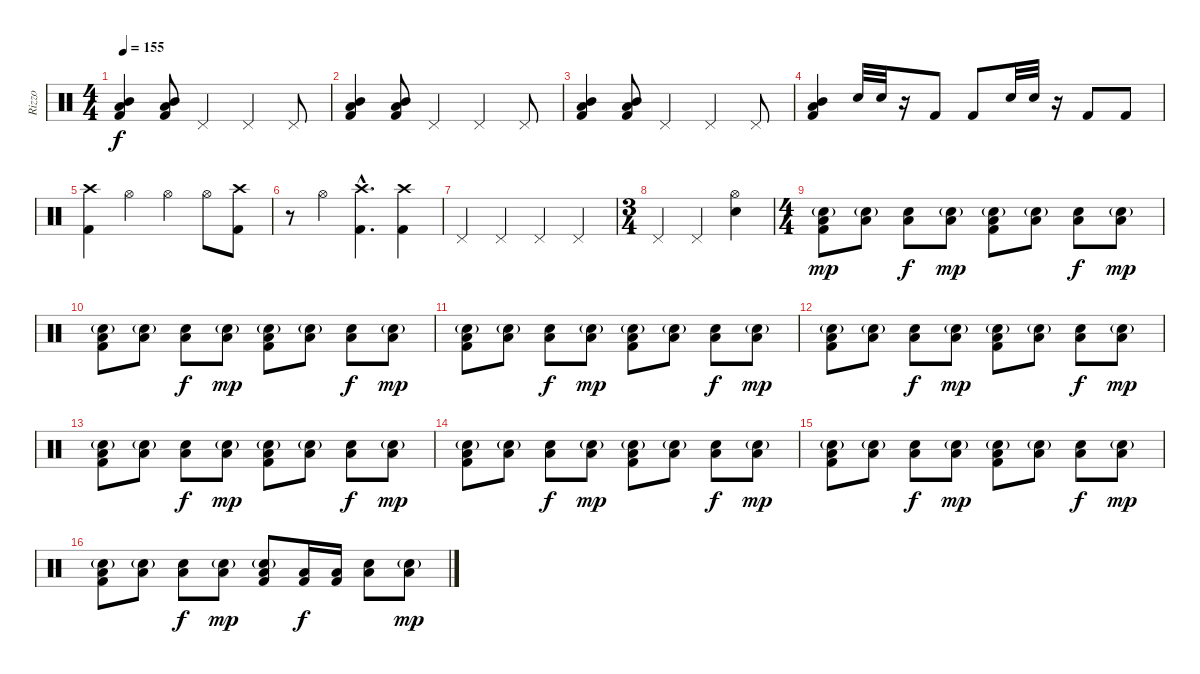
\track ("Rizzo" "Rizzo") {instrument percussion}
\staff {score}
\articulation defaults
\ts (4 4)
\tempo 155
\clef neutral
\ks c
("Mid Tom (hit)" "Low Tom (hit)" "Kick (hit) 2").4{dy f} ("Mid Tom (hit)" "Low Tom (hit)" "Kick (hit) 2").8 "Pedal Hi-Hat (hit)".4 "Pedal Hi-Hat (hit)".4 "Pedal Hi-Hat (hit)".8 |
("Mid Tom (hit)" "Low Tom (hit)" "Kick (hit) 2").4 ("Mid Tom (hit)" "Low Tom (hit)" "Kick (hit) 2").8 "Pedal Hi-Hat (hit)".4 "Pedal Hi-Hat (hit)".4 "Pedal Hi-Hat (hit)".8 |
("Mid Tom (hit)" "Low Tom (hit)" "Kick (hit) 2").4 ("Mid Tom (hit)" "Low Tom (hit)" "Kick (hit) 2").8 "Pedal Hi-Hat (hit)".4 "Pedal Hi-Hat (hit)".4 "Pedal Hi-Hat (hit)".8 |
("Mid Tom (hit)" "Low Tom (hit)" "Kick (hit) 2").4 "Electric Snare (hit)".32 "Electric Snare (hit)".32 r.16 "Kick (hit) 2".8 "Kick (hit) 2".8 "Electric Snare (hit)".32 "Electric Snare (hit)".32 r.16 "Kick (hit) 2".8 "Kick (hit) 2".8 |
("Crash high (hit)" "Kick (hit) 2").4 "Hi-Hat (open)".4 "Hi-Hat (open)".4 "Hi-Hat (open)".8 ("Crash high (hit)" "Kick (hit) 2").8 |
r.8 "Hi-Hat (open)".4 ("Crash high (hit)"{hac} "Kick (hit) 2"{hac}).4{d} ("Crash high (hit)" "Kick (hit) 2").4 |
"Pedal Hi-Hat (hit)".4 "Pedal Hi-Hat (hit)".4 "Pedal Hi-Hat (hit)".4 "Pedal Hi-Hat (hit)".4 |
\ts (3 4)
"Pedal Hi-Hat (hit)".4 "Pedal Hi-Hat (hit)".4 ("Hi-Hat (open)" "Electric Snare (hit)").4 |
\ts (4 4)
("Low Tom (hit)" "Electric Snare (hit)"{g} "Kick (hit) 2").8{dy mp} ("Low Tom (hit)" "Electric Snare (hit)"{g}).8 ("Low Tom (hit)" "Electric Snare (hit)").8{dy f} ("Low Tom (hit)" "Electric Snare (hit)"{g}).8{dy mp} ("Low Tom (hit)" "Electric Snare (hit)"{g} "Kick (hit) 2").8 ("Low Tom (hit)" "Electric Snare (hit)"{g}).8 ("Low Tom (hit)" "Electric Snare (hit)").8{dy f} ("Low Tom (hit)" "Electric Snare (hit)"{g}).8{dy mp} |
("Low Tom (hit)" "Electric Snare (hit)"{g} "Kick (hit) 2").8 ("Low Tom (hit)" "Electric Snare (hit)"{g}).8 ("Low Tom (hit)" "Electric Snare (hit)").8{dy f} ("Low Tom (hit)" "Electric Snare (hit)"{g}).8{dy mp} ("Low Tom (hit)" "Electric Snare (hit)"{g} "Kick (hit) 2").8 ("Low Tom (hit)" "Electric Snare (hit)"{g}).8 ("Low Tom (hit)" "Electric Snare (hit)").8{dy f} ("Low Tom (hit)" "Electric Snare (hit)"{g}).8{dy mp} |
("Low Tom (hit)" "Electric Snare (hit)"{g} "Kick (hit) 2").8 ("Low Tom (hit)" "Electric Snare (hit)"{g}).8 ("Low Tom (hit)" "Electric Snare (hit)").8{dy f} ("Low Tom (hit)" "Electric Snare (hit)"{g}).8{dy mp} ("Low Tom (hit)" "Electric Snare (hit)"{g} "Kick (hit) 2").8 ("Low Tom (hit)" "Electric Snare (hit)"{g}).8 ("Low Tom (hit)" "Electric Snare (hit)").8{dy f} ("Low Tom (hit)" "Electric Snare (hit)"{g}).8{dy mp} |
("Low Tom (hit)" "Electric Snare (hit)"{g} "Kick (hit) 2").8 ("Low Tom (hit)" "Electric Snare (hit)"{g}).8 ("Low Tom (hit)" "Electric Snare (hit)").8{dy f} ("Low Tom (hit)" "Electric Snare (hit)"{g}).8{dy mp} ("Low Tom (hit)" "Electric Snare (hit)"{g} "Kick (hit) 2").8 ("Low Tom (hit)" "Electric Snare (hit)"{g}).8 ("Low Tom (hit)" "Electric Snare (hit)").8{dy f} ("Low Tom (hit)" "Electric Snare (hit)"{g}).8{dy mp} |
("Low Tom (hit)" "Electric Snare (hit)"{g} "Kick (hit) 2").8 ("Low Tom (hit)" "Electric Snare (hit)"{g}).8 ("Low Tom (hit)" "Electric Snare (hit)").8{dy f} ("Low Tom (hit)" "Electric Snare (hit)"{g}).8{dy mp} ("Low Tom (hit)" "Electric Snare (hit)"{g} "Kick (hit) 2").8 ("Low Tom (hit)" "Electric Snare (hit)"{g}).8 ("Low Tom (hit)" "Electric Snare (hit)").8{dy f} ("Low Tom (hit)" "Electric Snare (hit)"{g}).8{dy mp} |
("Low Tom (hit)" "Electric Snare (hit)"{g} "Kick (hit) 2").8 ("Low Tom (hit)" "Electric Snare (hit)"{g}).8 ("Low Tom (hit)" "Electric Snare (hit)").8{dy f} ("Low Tom (hit)" "Electric Snare (hit)"{g}).8{dy mp} ("Low Tom (hit)" "Electric Snare (hit)"{g} "Kick (hit) 2").8 ("Low Tom (hit)" "Electric Snare (hit)"{g}).8 ("Low Tom (hit)" "Electric Snare (hit)").8{dy f} ("Low Tom (hit)" "Electric Snare (hit)"{g}).8{dy mp} |
("Low Tom (hit)" "Electric Snare (hit)"{g} "Kick (hit) 2").8 ("Low Tom (hit)" "Electric Snare (hit)"{g}).8 ("Low Tom (hit)" "Electric Snare (hit)").8{dy f} ("Low Tom (hit)" "Electric Snare (hit)"{g}).8{dy mp} ("Low Tom (hit)" "Electric Snare (hit)"{g} "Kick (hit) 2").8 ("Low Tom (hit)" "Electric Snare (hit)"{g}).8 ("Low Tom (hit)" "Electric Snare (hit)").8{dy f} ("Low Tom (hit)" "Electric Snare (hit)"{g}).8{dy mp} |
("Low Tom (hit)" "Electric Snare (hit)"{g} "Kick (hit) 2").8 ("Low Tom (hit)" "Electric Snare (hit)"{g}).8 ("Low Tom (hit)" "Electric Snare (hit)").8{dy f} ("Low Tom (hit)" "Electric Snare (hit)"{g}).8{dy mp} ("Low Tom (hit)" "Electric Snare (hit)"{g} "Kick (hit) 2").8 ("Low Tom (hit)" "Kick (hit) 2").16{dy f} ("Low Tom (hit)" "Kick (hit) 2").16 ("Low Tom (hit)" "Electric Snare (hit)").8 ("Low Tom (hit)" "Electric Snare (hit)"{g}).8{dy mp}
